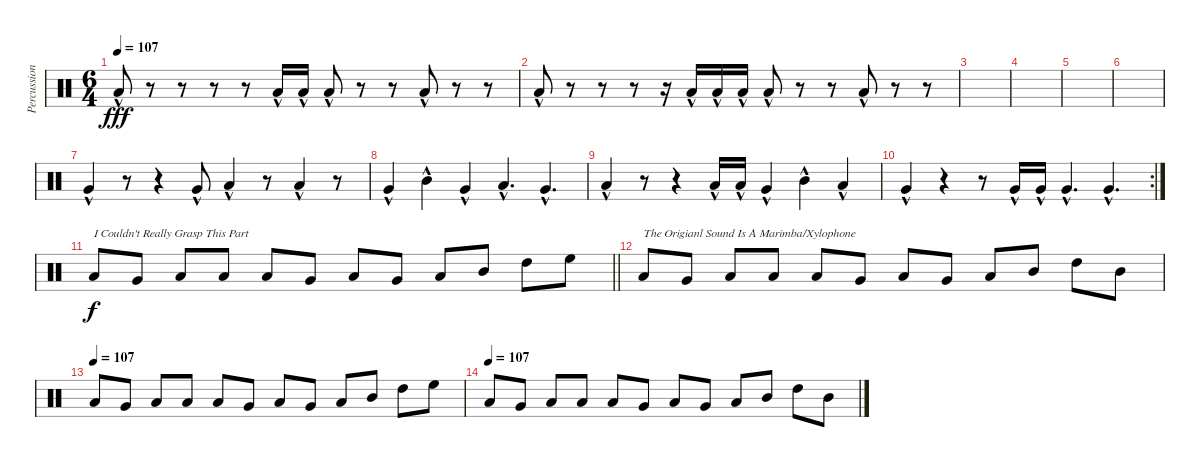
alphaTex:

\track ("Percussion" "Percussion") {instrument percussion}
\staff {score}
\articulation defaults
\ts (6 4)
\tempo 107
\clef neutral
\ks c "Low Tom (hit)"{hac}.8{dy fff}
r.8 r.8 r.8 r.8 "Low Tom (hit)"{hac}.16 "Low Tom (hit)"{hac}.16 "Low Tom (hit)"{hac}.8 r.8 r.8 "Low Tom (hit)"{hac}.8 r.8 r.8 |
"Low Tom (hit)"{hac}.8 r.8 r.8 r.8 r.16 "Low Tom (hit)"{hac}.16 "Low Tom (hit)"{hac}.16 "Low Tom (hit)"{hac}.16 "Low Tom (hit)"{hac}.8 r.8 r.8 "Low Tom (hit)"{hac}.8 r.8 r.8 |
|
|
|
|
"Very Low Tom (hit)"{hac}.4 r.8 r.4 "Very Low Tom (hit)"{hac}.8 "Low Floor Tom (hit)"{hac}.4 r.8 "Low Floor Tom (hit)"{hac}.4 r.8 |
"Very Low Tom (hit)"{hac}.4 "Mid Tom (hit)"{hac}.4 "Very Low Tom (hit)"{hac}.4 "Low Tom (hit)"{hac}.4{d} "Very Low Tom (hit)"{hac}.4{d} |
"Low Floor Tom (hit)"{hac}.4 r.8 r.4 "Low Floor Tom (hit)"{hac}.16 "Low Floor Tom (hit)"{hac}.16 "Very Low Tom (hit)"{hac}.4 "Mid Tom (hit)"{hac}.4 "Low Tom (hit)"{hac}.4 |
\rc 2 "Very Low Tom (hit)"{hac}.4
r.4 r.8 "Very Low Tom (hit)"{hac}.16 "Very Low Tom (hit)"{hac}.16 "Very Low Tom (hit)"{hac}.4{d} "Very Low Tom (hit)"{hac}.4{d} |
\barLineRight lightlight "Low Floor Tom (hit)".8{txt "I Couldn't Really Grasp This Part" dy f volume 10} "Very Low Tom (hit)".8 "Low Tom (hit)".8 "Low Floor Tom (hit)".8 "Low Tom (hit)".8 "Very Low Tom (hit)".8 "Low Floor Tom (hit)".8 "Very Low Tom (hit)".8 "Low Tom (hit)".8 "Mid Tom (hit)".8 "High Tom (hit)".8 "High Floor Tom (hit)".8
|
"Low Floor Tom (hit)".8{txt "The Origianl Sound Is A Marimba/Xylophone"} "Very Low Tom (hit)".8 "Low Tom (hit)".8 "Low Floor Tom (hit)".8 "Low Tom (hit)".8 "Very Low Tom (hit)".8 "Low Floor Tom (hit)".8 "Very Low Tom (hit)".8 "Low Tom (hit)".8 "Mid Tom (hit)".8 "High Tom (hit)".8 "Mid Tom (hit)".8 |
\tempo (107)
"Low Floor Tom (hit)".8{volume 1} "Very Low Tom (hit)".8 "Low Tom (hit)".8 "Low Floor Tom (hit)".8 "Low Tom (hit)".8 "Very Low Tom (hit)".8 "Low Floor Tom (hit)".8 "Very Low Tom (hit)".8 "Low Tom (hit)".8 "Mid Tom (hit)".8 "High Tom (hit)".8 "High Floor Tom (hit)".8 |
\tempo (107)
"Low Floor Tom (hit)".8 "Very Low Tom (hit)".8 "Low Tom (hit)".8 "Low Floor Tom (hit)".8 "Low Tom (hit)".8 "Very Low Tom (hit)".8 "Low Floor Tom (hit)".8 "Very Low Tom (hit)".8 "Low Tom (hit)".8 "Mid Tom (hit)".8 "High Tom (hit)".8 "Mid Tom (hit)".8
